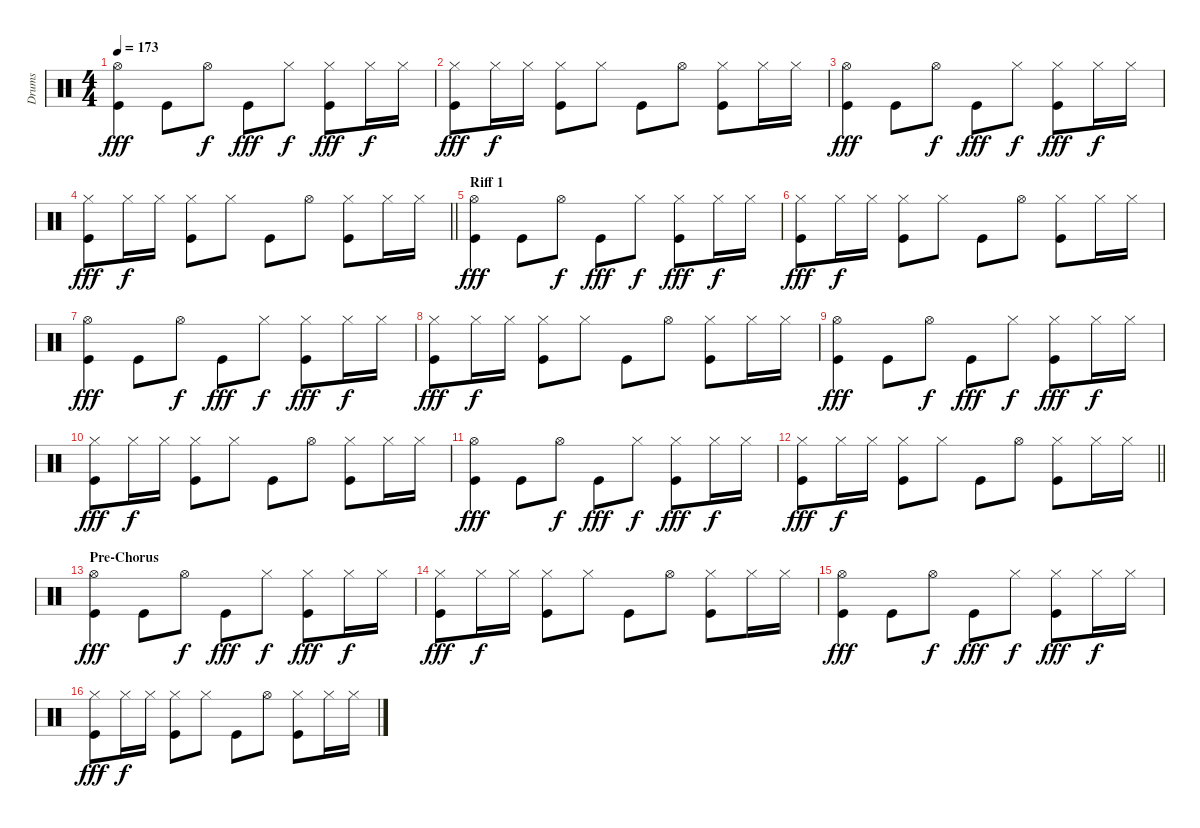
\track ("Drums" "Drums") {instrument percussion}
\staff {score}
\articulation defaults
\ts (4 4)
\tempo 173
\clef neutral
\ks c
("Kick (hit)" "Hi-Hat (open)").4{dy fff} "Kick (hit)".8 "Hi-Hat (open)".8{dy f} "Kick (hit)".8{dy fff} "Hi-Hat (closed)".8{dy f} ("Kick (hit)" "Hi-Hat (closed)").8{dy fff} "Hi-Hat (closed)".16{dy f} "Hi-Hat (closed)".16 |
("Kick (hit)" "Hi-Hat (closed)").8{dy fff} "Hi-Hat (closed)".16{dy f} "Hi-Hat (closed)".16 ("Kick (hit)" "Hi-Hat (closed)").8 "Hi-Hat (closed)".8 "Kick (hit)".8 "Hi-Hat (open)".8 ("Kick (hit)" "Hi-Hat (closed)").8 "Hi-Hat (closed)".16 "Hi-Hat (closed)".16 |
("Kick (hit)" "Hi-Hat (open)").4{dy fff} "Kick (hit)".8 "Hi-Hat (open)".8{dy f} "Kick (hit)".8{dy fff} "Hi-Hat (closed)".8{dy f} ("Kick (hit)" "Hi-Hat (closed)").8{dy fff} "Hi-Hat (closed)".16{dy f} "Hi-Hat (closed)".16 |
\barLineRight lightlight
("Kick (hit)" "Hi-Hat (closed)").8{dy fff} "Hi-Hat (closed)".16{dy f} "Hi-Hat (closed)".16 ("Kick (hit)" "Hi-Hat (closed)").8 "Hi-Hat (closed)".8 "Kick (hit)".8 "Hi-Hat (open)".8 ("Kick (hit)" "Hi-Hat (closed)").8 "Hi-Hat (closed)".16 "Hi-Hat (closed)".16 |
\section ("" "Riff 1")
("Kick (hit)" "Hi-Hat (open)").4{dy fff} "Kick (hit)".8 "Hi-Hat (open)".8{dy f} "Kick (hit)".8{dy fff} "Hi-Hat (closed)".8{dy f} ("Kick (hit)" "Hi-Hat (closed)").8{dy fff} "Hi-Hat (closed)".16{dy f} "Hi-Hat (closed)".16 |
("Kick (hit)" "Hi-Hat (closed)").8{dy fff} "Hi-Hat (closed)".16{dy f} "Hi-Hat (closed)".16 ("Kick (hit)" "Hi-Hat (closed)").8 "Hi-Hat (closed)".8 "Kick (hit)".8 "Hi-Hat (open)".8 ("Kick (hit)" "Hi-Hat (closed)").8 "Hi-Hat (closed)".16 "Hi-Hat (closed)".16 |
("Kick (hit)" "Hi-Hat (open)").4{dy fff} "Kick (hit)".8 "Hi-Hat (open)".8{dy f} "Kick (hit)".8{dy fff} "Hi-Hat (closed)".8{dy f} ("Kick (hit)" "Hi-Hat (closed)").8{dy fff} "Hi-Hat (closed)".16{dy f} "Hi-Hat (closed)".16 |
("Kick (hit)" "Hi-Hat (closed)").8{dy fff} "Hi-Hat (closed)".16{dy f} "Hi-Hat (closed)".16 ("Kick (hit)" "Hi-Hat (closed)").8 "Hi-Hat (closed)".8 "Kick (hit)".8 "Hi-Hat (open)".8 ("Kick (hit)" "Hi-Hat (closed)").8 "Hi-Hat (closed)".16 "Hi-Hat (closed)".16 |
("Kick (hit)" "Hi-Hat (open)").4{dy fff} "Kick (hit)".8 "Hi-Hat (open)".8{dy f} "Kick (hit)".8{dy fff} "Hi-Hat (closed)".8{dy f} ("Kick (hit)" "Hi-Hat (closed)").8{dy fff} "Hi-Hat (closed)".16{dy f} "Hi-Hat (closed)".16 |
("Kick (hit)" "Hi-Hat (closed)").8{dy fff} "Hi-Hat (closed)".16{dy f} "Hi-Hat (closed)".16 ("Kick (hit)" "Hi-Hat (closed)").8 "Hi-Hat (closed)".8 "Kick (hit)".8 "Hi-Hat (open)".8 ("Kick (hit)" "Hi-Hat (closed)").8 "Hi-Hat (closed)".16 "Hi-Hat (closed)".16 |
("Kick (hit)" "Hi-Hat (open)").4{dy fff} "Kick (hit)".8 "Hi-Hat (open)".8{dy f} "Kick (hit)".8{dy fff} "Hi-Hat (closed)".8{dy f} ("Kick (hit)" "Hi-Hat (closed)").8{dy fff} "Hi-Hat (closed)".16{dy f} "Hi-Hat (closed)".16 |
\barLineRight lightlight
("Kick (hit)" "Hi-Hat (closed)").8{dy fff} "Hi-Hat (closed)".16{dy f} "Hi-Hat (closed)".16 ("Kick (hit)" "Hi-Hat (closed)").8 "Hi-Hat (closed)".8 "Kick (hit)".8 "Hi-Hat (open)".8 ("Kick (hit)" "Hi-Hat (closed)").8 "Hi-Hat (closed)".16 "Hi-Hat (closed)".16 |
\section ("" "Pre-Chorus")
("Kick (hit)" "Hi-Hat (open)").4{dy fff} "Kick (hit)".8 "Hi-Hat (open)".8{dy f} "Kick (hit)".8{dy fff} "Hi-Hat (closed)".8{dy f} ("Kick (hit)" "Hi-Hat (closed)").8{dy fff} "Hi-Hat (closed)".16{dy f} "Hi-Hat (closed)".16 |
("Kick (hit)" "Hi-Hat (closed)").8{dy fff} "Hi-Hat (closed)".16{dy f} "Hi-Hat (closed)".16 ("Kick (hit)" "Hi-Hat (closed)").8 "Hi-Hat (closed)".8 "Kick (hit)".8 "Hi-Hat (open)".8 ("Kick (hit)" "Hi-Hat (closed)").8 "Hi-Hat (closed)".16 "Hi-Hat (closed)".16 |
("Kick (hit)" "Hi-Hat (open)").4{dy fff} "Kick (hit)".8 "Hi-Hat (open)".8{dy f} "Kick (hit)".8{dy fff} "Hi-Hat (closed)".8{dy f} ("Kick (hit)" "Hi-Hat (closed)").8{dy fff} "Hi-Hat (closed)".16{dy f} "Hi-Hat (closed)".16 |
("Kick (hit)" "Hi-Hat (closed)").8{dy fff} "Hi-Hat (closed)".16{dy f} "Hi-Hat (closed)".16 ("Kick (hit)" "Hi-Hat (closed)").8 "Hi-Hat (closed)".8 "Kick (hit)".8 "Hi-Hat (open)".8 ("Kick (hit)" "Hi-Hat (closed)").8 "Hi-Hat (closed)".16 "Hi-Hat (closed)".16
